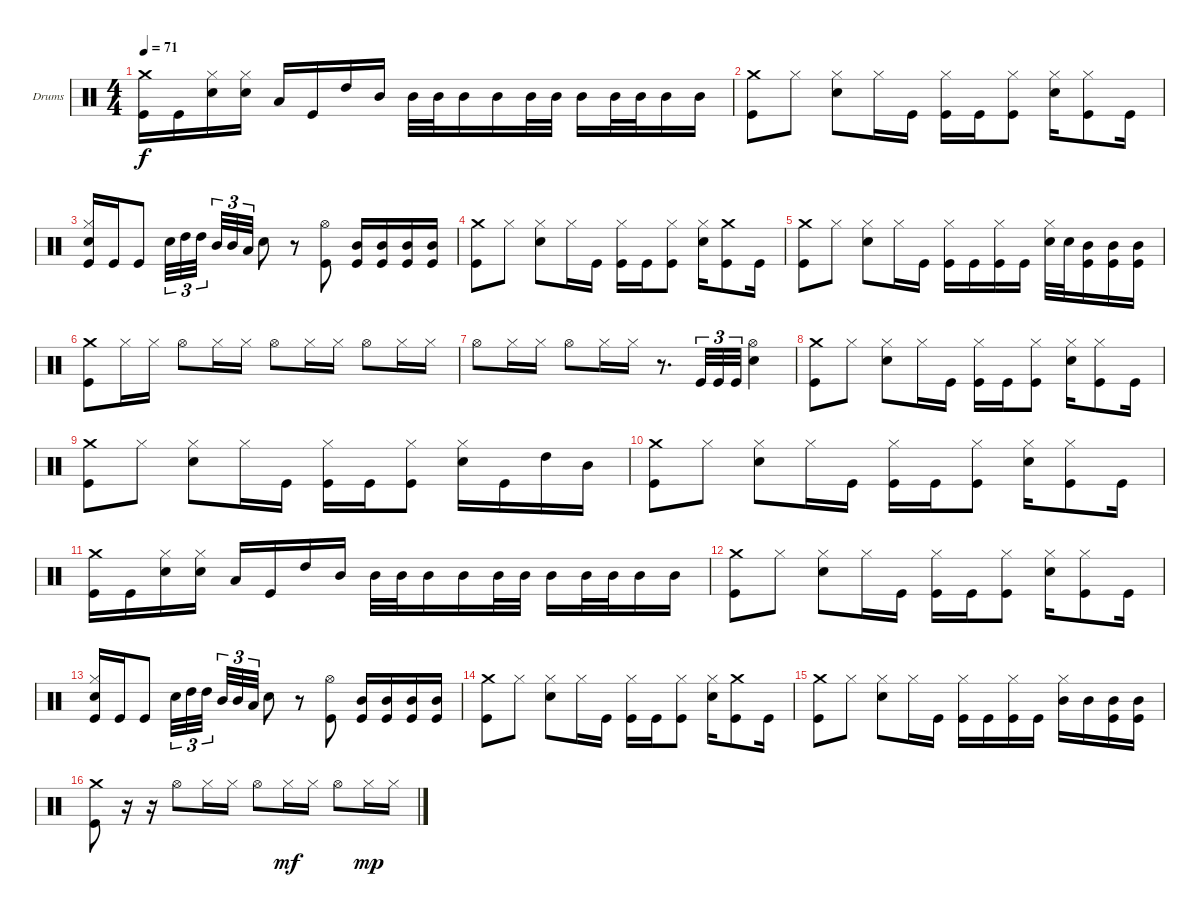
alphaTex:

\defaultSystemsLayout 4
\bracketExtendMode groupsimilarinstruments
\firstSystemTrackNameOrientation horizontal
\otherSystemsTrackNameOrientation horizontal
\track ("Drumkit" "Drums") {instrument percussion}
\staff {score}
\articulation defaults
\ts (4 4)
\tempo 71
\clef neutral
\ks c
("Kick (hit)" "Crash medium (hit)").16{dy f} "Kick (hit)".16 ("Hi-Hat (closed)" "Snare (hit) 2").16 ("Hi-Hat (closed)" "Snare (hit) 2").16 "Low Tom (hit)".16 "Kick (hit)".16 "High Tom (hit)".16 "Mid Tom (hit)".16 "Mid Tom (hit)".32 "Mid Tom (hit)".32 "Mid Tom (hit)".16 "Mid Tom (hit)".16 "Mid Tom (hit)".32 "Mid Tom (hit)".32 "Mid Tom (hit)".16 "Mid Tom (hit)".32 "Mid Tom (hit)".32 "Mid Tom (hit)".16 "Mid Tom (hit)".16 |
("Crash medium (hit)" "Kick (hit)").8 "Hi-Hat (closed)".8 ("Hi-Hat (closed)" "Snare (hit) 2").8 "Hi-Hat (closed)".16 "Kick (hit)".16 ("Kick (hit)" "Hi-Hat (closed)").16 "Kick (hit)".16 ("Hi-Hat (closed)" "Kick (hit)").8 ("Snare (hit) 2" "Hi-Hat (closed)").16 ("Kick (hit)" "Hi-Hat (closed)").8 "Kick (hit)".16 |
("Hi-Hat (closed)" "Snare (hit) 2" "Kick (hit)").16 "Kick (hit)".16 "Kick (hit)".8 "Snare (hit) 2".32{tu (3 2)} "High Tom (hit)".32{tu (3 2)} "High Tom (hit)".32{tu (3 2)} "Mid Tom (hit)".32{tu (3 2)} "Mid Tom (hit)".32{tu (3 2)} "Low Tom (hit)".32{tu (3 2)} "Snare (hit) 2".8 r.8 ("Hi-Hat (open)" "Kick (hit)").8 ("Kick (hit)" "Mid Tom (hit)").16 ("Kick (hit)" "Mid Tom (hit)").16 ("Kick (hit)" "Mid Tom (hit)").16 ("Kick (hit)" "Mid Tom (hit)").16 |
("Crash medium (hit)" "Kick (hit)").8 "Hi-Hat (closed)".8 ("Hi-Hat (closed)" "Snare (hit) 2").8 "Hi-Hat (closed)".16 "Kick (hit)".16 ("Kick (hit)" "Hi-Hat (closed)").16 "Kick (hit)".16 ("Hi-Hat (closed)" "Kick (hit)").8 ("Snare (hit) 2" "Hi-Hat (closed)").16 ("Kick (hit)" "Crash medium (hit)").8 "Kick (hit)".16 |
("Crash medium (hit)" "Kick (hit)").8 "Hi-Hat (closed)".8 ("Hi-Hat (closed)" "Snare (hit) 2").8 "Hi-Hat (closed)".16 "Kick (hit)".16 ("Kick (hit)" "Hi-Hat (closed)").16 "Kick (hit)".16 ("Kick (hit)" "Hi-Hat (closed)").16 "Kick (hit)".16 ("Hi-Hat (closed)" "Snare (hit) 2").32 "Snare (hit) 2".32 ("Mid Tom (hit)" "Kick (hit)").16 ("Mid Tom (hit)" "Kick (hit)").16 ("Mid Tom (hit)" "Kick (hit)").16 |
("Kick (hit)" "Crash medium (hit)").8 "Hi-Hat (closed)".16 "Hi-Hat (closed)".16 "Hi-Hat (open)".8 "Hi-Hat (closed)".16 "Hi-Hat (closed)".16 "Hi-Hat (open)".8 "Hi-Hat (closed)".16 "Hi-Hat (closed)".16 "Hi-Hat (open)".8 "Hi-Hat (closed)".16 "Hi-Hat (closed)".16 |
"Hi-Hat (open)".8 "Hi-Hat (closed)".16 "Hi-Hat (closed)".16 "Hi-Hat (open)".8 "Hi-Hat (closed)".16 "Hi-Hat (closed)".16 r.8{d} "Kick (hit)".32{tu (3 2)} "Kick (hit)".32{tu (3 2)} "Kick (hit)".32{tu (3 2)} ("Snare (hit) 2" "Hi-Hat (open)").4 |
("Crash medium (hit)" "Kick (hit)").8 "Hi-Hat (closed)".8 ("Hi-Hat (closed)" "Snare (hit) 2").8 "Hi-Hat (closed)".16 "Kick (hit)".16 ("Kick (hit)" "Hi-Hat (closed)").16 "Kick (hit)".16 ("Hi-Hat (closed)" "Kick (hit)").8 ("Snare (hit) 2" "Hi-Hat (closed)").16 ("Kick (hit)" "Hi-Hat (closed)").8 "Kick (hit)".16 |
("Crash medium (hit)" "Kick (hit)").8 "Hi-Hat (closed)".8 ("Hi-Hat (closed)" "Snare (hit) 2").8 "Hi-Hat (closed)".16 "Kick (hit)".16 ("Kick (hit)" "Hi-Hat (closed)").16 "Kick (hit)".16 ("Hi-Hat (closed)" "Kick (hit)").8 ("Snare (hit) 2" "Hi-Hat (closed)").16 "Kick (hit)".16 "High Tom (hit)".16 "Mid Tom (hit)".16 |
("Crash medium (hit)" "Kick (hit)").8 "Hi-Hat (closed)".8 ("Hi-Hat (closed)" "Snare (hit) 2").8 "Hi-Hat (closed)".16 "Kick (hit)".16 ("Kick (hit)" "Hi-Hat (closed)").16 "Kick (hit)".16 ("Hi-Hat (closed)" "Kick (hit)").8 ("Snare (hit) 2" "Hi-Hat (closed)").16 ("Kick (hit)" "Hi-Hat (closed)").8 "Kick (hit)".16 |
("Kick (hit)" "Crash medium (hit)").16 "Kick (hit)".16 ("Hi-Hat (closed)" "Snare (hit) 2").16 ("Hi-Hat (closed)" "Snare (hit) 2").16 "Low Tom (hit)".16 "Kick (hit)".16 "High Tom (hit)".16 "Mid Tom (hit)".16 "Mid Tom (hit)".32 "Mid Tom (hit)".32 "Mid Tom (hit)".16 "Mid Tom (hit)".16 "Mid Tom (hit)".32 "Mid Tom (hit)".32 "Mid Tom (hit)".16 "Mid Tom (hit)".32 "Mid Tom (hit)".32 "Mid Tom (hit)".16 "Mid Tom (hit)".16 |
("Crash medium (hit)" "Kick (hit)").8 "Hi-Hat (closed)".8 ("Hi-Hat (closed)" "Snare (hit) 2").8 "Hi-Hat (closed)".16 "Kick (hit)".16 ("Kick (hit)" "Hi-Hat (closed)").16 "Kick (hit)".16 ("Hi-Hat (closed)" "Kick (hit)").8 ("Snare (hit) 2" "Hi-Hat (closed)").16 ("Kick (hit)" "Hi-Hat (closed)").8 "Kick (hit)".16 |
("Hi-Hat (closed)" "Snare (hit) 2" "Kick (hit)").16 "Kick (hit)".16 "Kick (hit)".8 "Snare (hit) 2".32{tu (3 2)} "High Tom (hit)".32{tu (3 2)} "High Tom (hit)".32{tu (3 2)} "Mid Tom (hit)".32{tu (3 2)} "Mid Tom (hit)".32{tu (3 2)} "Low Tom (hit)".32{tu (3 2)} "Snare (hit) 2".8 r.8 ("Hi-Hat (open)" "Kick (hit)").8 ("Kick (hit)" "Mid Tom (hit)").16 ("Kick (hit)" "Mid Tom (hit)").16 ("Kick (hit)" "Mid Tom (hit)").16 ("Kick (hit)" "Mid Tom (hit)").16 |
("Crash medium (hit)" "Kick (hit)").8 "Hi-Hat (closed)".8 ("Hi-Hat (closed)" "Snare (hit) 2").8 "Hi-Hat (closed)".16 "Kick (hit)".16 ("Kick (hit)" "Hi-Hat (closed)").16 "Kick (hit)".16 ("Hi-Hat (closed)" "Kick (hit)").8 ("Snare (hit) 2" "Hi-Hat (closed)").16 ("Kick (hit)" "Crash medium (hit)").8 "Kick (hit)".16 |
("Crash medium (hit)" "Kick (hit)").8 "Hi-Hat (closed)".8 ("Hi-Hat (closed)" "Snare (hit) 2").8 "Hi-Hat (closed)".16 "Kick (hit)".16 ("Kick (hit)" "Hi-Hat (closed)").16 "Kick (hit)".16 ("Kick (hit)" "Hi-Hat (closed)").16 "Kick (hit)".16 ("Hi-Hat (closed)" "Mid Tom (hit)").16 "Mid Tom (hit)".16 ("Mid Tom (hit)" "Kick (hit)").16 ("Mid Tom (hit)" "Kick (hit)").16 |
("Crash medium (hit)" "Kick (hit)").8 r.16 r.16 "Hi-Hat (open)".8 "Hi-Hat (closed)".16 "Hi-Hat (closed)".16 "Hi-Hat (open)".8 "Hi-Hat (closed)".16{dy mf} "Hi-Hat (closed)".16 "Hi-Hat (open)".8 "Hi-Hat (closed)".16{dy mp} "Hi-Hat (closed)".16
